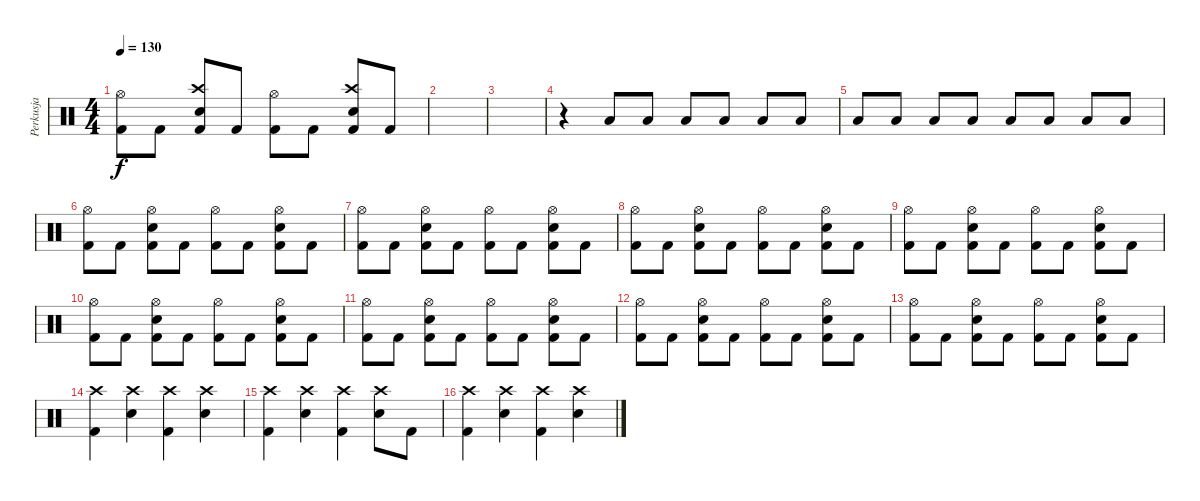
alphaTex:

\track ("Perkusja" "Perkusja") {instrument percussion}
\staff {score}
\articulation defaults
\ts (4 4)
\tempo 130
\clef neutral
\ks c
("Hi-Hat (open)" "Kick (hit) 2").8{dy f} "Kick (hit) 2".8 ("Crash high (hit)" "Snare (hit) 2" "Kick (hit) 2").8 "Kick (hit) 2".8 ("Hi-Hat (open)" "Kick (hit) 2").8 "Kick (hit) 2".8 ("Crash high (hit)" "Snare (hit) 2" "Kick (hit) 2").8 "Kick (hit) 2".8 |
|
|
r.4 "Low Floor Tom (hit)".8 "Low Floor Tom (hit)".8 "Low Floor Tom (hit)".8 "Low Floor Tom (hit)".8 "Low Floor Tom (hit)".8 "Low Floor Tom (hit)".8 |
"Low Floor Tom (hit)".8 "Low Floor Tom (hit)".8 "Low Floor Tom (hit)".8 "Low Floor Tom (hit)".8 "Low Floor Tom (hit)".8 "Low Floor Tom (hit)".8 "Low Floor Tom (hit)".8 "Low Floor Tom (hit)".8 |
("Hi-Hat (open)" "Kick (hit) 2").8 "Kick (hit) 2".8 ("Hi-Hat (open)" "Snare (hit) 2" "Kick (hit) 2").8 "Kick (hit) 2".8 ("Hi-Hat (open)" "Kick (hit) 2").8 "Kick (hit) 2".8 ("Hi-Hat (open)" "Snare (hit) 2" "Kick (hit) 2").8 "Kick (hit) 2".8 |
("Hi-Hat (open)" "Kick (hit) 2").8 "Kick (hit) 2".8 ("Hi-Hat (open)" "Snare (hit) 2" "Kick (hit) 2").8 "Kick (hit) 2".8 ("Hi-Hat (open)" "Kick (hit) 2").8 "Kick (hit) 2".8 ("Hi-Hat (open)" "Snare (hit) 2" "Kick (hit) 2").8 "Kick (hit) 2".8 |
("Hi-Hat (open)" "Kick (hit) 2").8 "Kick (hit) 2".8 ("Hi-Hat (open)" "Snare (hit) 2" "Kick (hit) 2").8 "Kick (hit) 2".8 ("Hi-Hat (open)" "Kick (hit) 2").8 "Kick (hit) 2".8 ("Hi-Hat (open)" "Snare (hit) 2" "Kick (hit) 2").8 "Kick (hit) 2".8 |
("Hi-Hat (open)" "Kick (hit) 2").8 "Kick (hit) 2".8 ("Hi-Hat (open)" "Snare (hit) 2" "Kick (hit) 2").8 "Kick (hit) 2".8 ("Hi-Hat (open)" "Kick (hit) 2").8 "Kick (hit) 2".8 ("Hi-Hat (open)" "Snare (hit) 2" "Kick (hit) 2").8 "Kick (hit) 2".8 |
("Hi-Hat (open)" "Kick (hit) 2").8 "Kick (hit) 2".8 ("Hi-Hat (open)" "Snare (hit) 2" "Kick (hit) 2").8 "Kick (hit) 2".8 ("Hi-Hat (open)" "Kick (hit) 2").8 "Kick (hit) 2".8 ("Hi-Hat (open)" "Snare (hit) 2" "Kick (hit) 2").8 "Kick (hit) 2".8 |
("Hi-Hat (open)" "Kick (hit) 2").8 "Kick (hit) 2".8 ("Hi-Hat (open)" "Snare (hit) 2" "Kick (hit) 2").8 "Kick (hit) 2".8 ("Hi-Hat (open)" "Kick (hit) 2").8 "Kick (hit) 2".8 ("Hi-Hat (open)" "Snare (hit) 2" "Kick (hit) 2").8 "Kick (hit) 2".8 |
("Hi-Hat (open)" "Kick (hit) 2").8 "Kick (hit) 2".8 ("Hi-Hat (open)" "Snare (hit) 2" "Kick (hit) 2").8 "Kick (hit) 2".8 ("Hi-Hat (open)" "Kick (hit) 2").8 "Kick (hit) 2".8 ("Hi-Hat (open)" "Snare (hit) 2" "Kick (hit) 2").8 "Kick (hit) 2".8 |
("Hi-Hat (open)" "Kick (hit) 2").8 "Kick (hit) 2".8 ("Hi-Hat (open)" "Snare (hit) 2" "Kick (hit) 2").8 "Kick (hit) 2".8 ("Hi-Hat (open)" "Kick (hit) 2").8 "Kick (hit) 2".8 ("Hi-Hat (open)" "Snare (hit) 2" "Kick (hit) 2").8 "Kick (hit) 2".8 |
("Crash high (hit)" "Kick (hit) 2").4 ("Crash high (hit)" "Snare (hit) 2").4 ("Crash high (hit)" "Kick (hit) 2").4 ("Crash high (hit)" "Snare (hit) 2").4 |
("Crash high (hit)" "Kick (hit) 2").4 ("Crash high (hit)" "Snare (hit) 2").4 ("Crash high (hit)" "Kick (hit) 2").4 ("Crash high (hit)" "Snare (hit) 2").8 "Kick (hit) 2".8 |
("Crash high (hit)" "Kick (hit) 2").4 ("Crash high (hit)" "Snare (hit) 2").4 ("Crash high (hit)" "Kick (hit) 2").4 ("Crash high (hit)" "Snare (hit) 2").4
